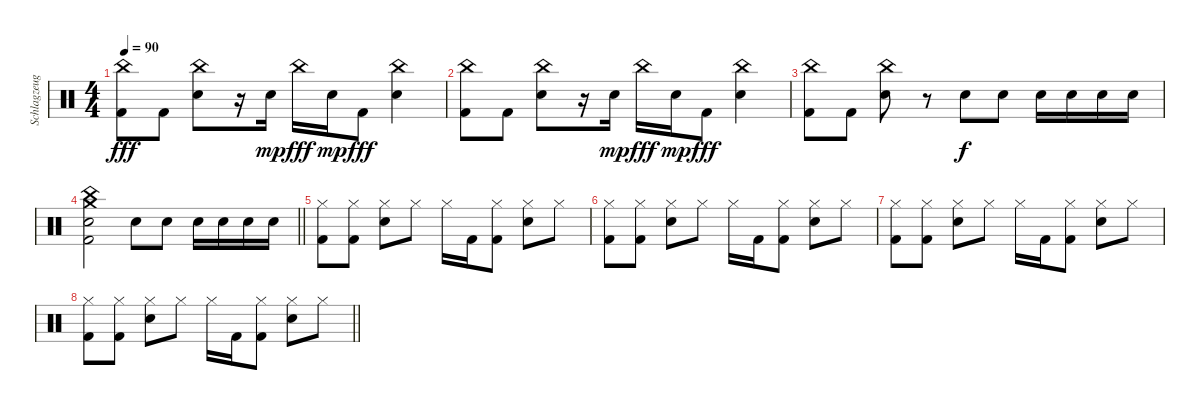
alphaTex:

\track ("Schlagzeug" "Schlagzeug") {instrument percussion}
\staff {score}
\articulation defaults
\ts (4 4)
\tempo 90
\clef neutral
\ks c
("China (hit)" "Kick (hit) 2").8{dy fff} "Kick (hit) 2".8 ("China (hit)" "Snare (hit) 2").8 r.16 "Snare (hit) 2".16{dy mp} "China (hit)".16{dy fff} "Snare (hit) 2".16{dy mp} "Kick (hit) 2".8{dy fff} ("China (hit)" "Snare (hit) 2").4 |
("China (hit)" "Kick (hit) 2").8 "Kick (hit) 2".8 ("China (hit)" "Snare (hit) 2").8 r.16 "Snare (hit) 2".16{dy mp} "China (hit)".16{dy fff} "Snare (hit) 2".16{dy mp} "Kick (hit) 2".8{dy fff} ("China (hit)" "Snare (hit) 2").4 |
("China (hit)" "Kick (hit) 2").8 "Kick (hit) 2".8 ("China (hit)" "Snare (hit) 2").8 r.8 "Snare (hit) 2".8{dy f} "Snare (hit) 2".8 "Snare (hit) 2".16 "Snare (hit) 2".16 "Snare (hit) 2".16 "Snare (hit) 2".16 |
\barLineRight lightlight
("China (hit)" "Crash medium (hit)" "Snare (hit) 2" "Kick (hit) 2").2 "Snare (hit) 2".8 "Snare (hit) 2".8 "Snare (hit) 2".16 "Snare (hit) 2".16 "Snare (hit) 2".16 "Snare (hit) 2".16 |
("Hi-Hat (closed)" "Kick (hit) 2").8 ("Hi-Hat (closed)" "Kick (hit) 2").8 ("Hi-Hat (closed)" "Snare (hit) 2").8 "Hi-Hat (closed)".8 "Hi-Hat (closed)".16 "Kick (hit) 2".16 ("Hi-Hat (closed)" "Kick (hit) 2").8 ("Hi-Hat (closed)" "Snare (hit) 2").8 "Hi-Hat (closed)".8 |
("Hi-Hat (closed)" "Kick (hit) 2").8 ("Hi-Hat (closed)" "Kick (hit) 2").8 ("Hi-Hat (closed)" "Snare (hit) 2").8 "Hi-Hat (closed)".8 "Hi-Hat (closed)".16 "Kick (hit) 2".16 ("Hi-Hat (closed)" "Kick (hit) 2").8 ("Hi-Hat (closed)" "Snare (hit) 2").8 "Hi-Hat (closed)".8 |
("Hi-Hat (closed)" "Kick (hit) 2").8 ("Hi-Hat (closed)" "Kick (hit) 2").8 ("Hi-Hat (closed)" "Snare (hit) 2").8 "Hi-Hat (closed)".8 "Hi-Hat (closed)".16 "Kick (hit) 2".16 ("Hi-Hat (closed)" "Kick (hit) 2").8 ("Hi-Hat (closed)" "Snare (hit) 2").8 "Hi-Hat (closed)".8 |
\barLineRight lightlight
("Hi-Hat (closed)" "Kick (hit) 2").8 ("Hi-Hat (closed)" "Kick (hit) 2").8 ("Hi-Hat (closed)" "Snare (hit) 2").8 "Hi-Hat (closed)".8 "Hi-Hat (closed)".16 "Kick (hit) 2".16 ("Hi-Hat (closed)" "Kick (hit) 2").8 ("Hi-Hat (closed)" "Snare (hit) 2").8 "Hi-Hat (closed)".8
